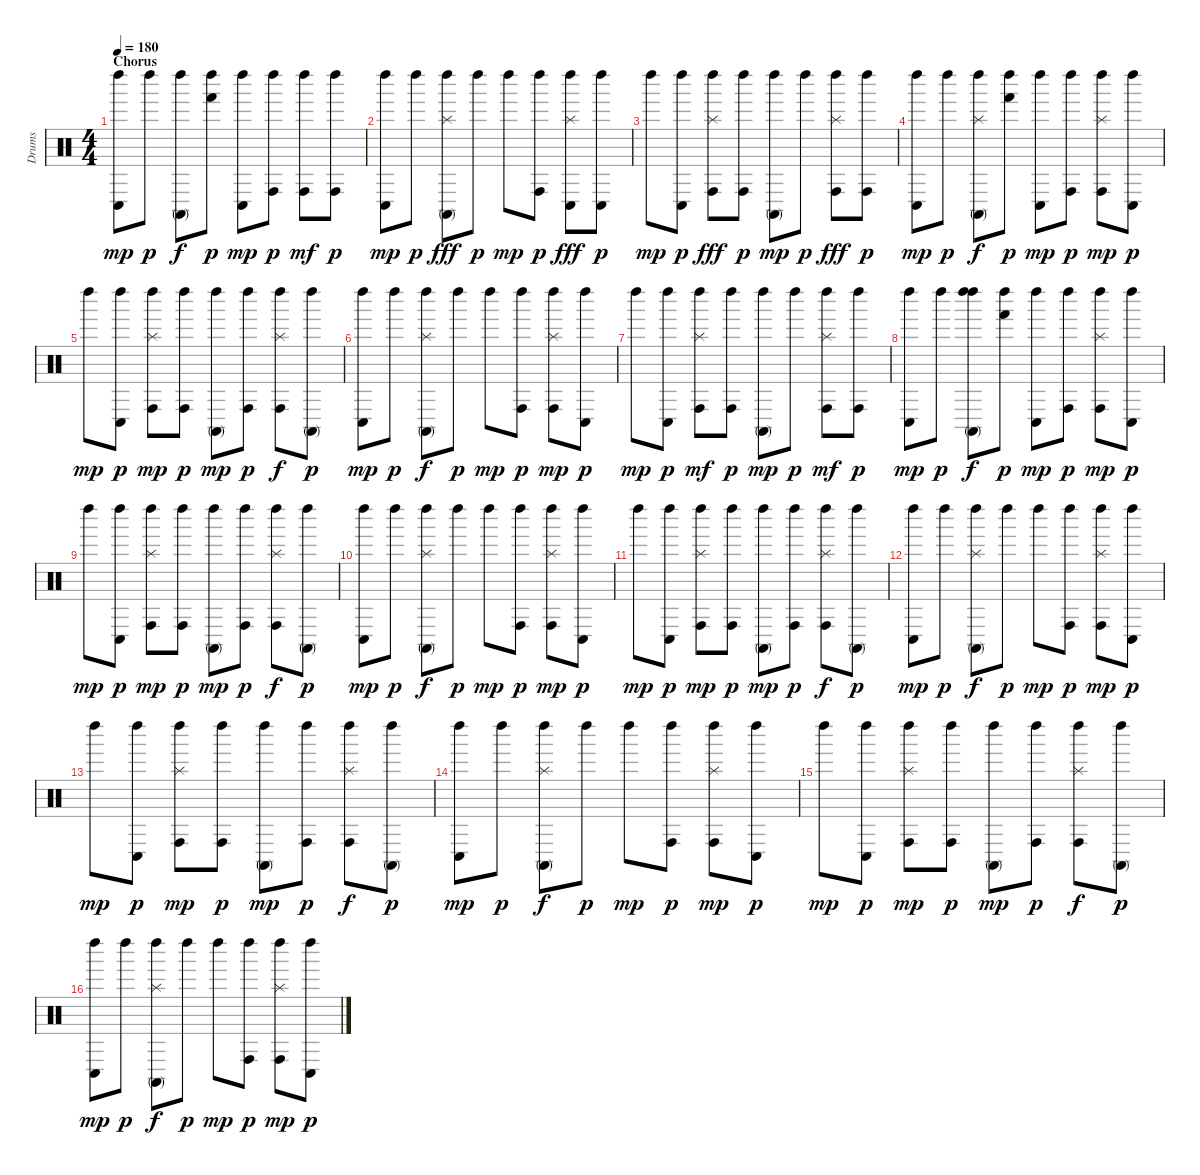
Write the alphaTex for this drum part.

\track ("Drums" "Drums") {instrument percussion}
\staff {score}
\articulation defaults
\ts (4 4)
\section ("" "Chorus")
\tempo 180
\clef neutral
\ks c
("Left Maraca (hit)" "Conga low (hit)").8{dy mp} "Left Maraca (hit)".8{dy p} ("Left Maraca (hit)" "Conga high (mute)").8{dy f} ("Left Maraca (hit)" "Hand (hit)").8{dy p} ("Left Maraca (hit)" "Conga low (hit)").8{dy mp} ("Left Maraca (hit)" "Conga high (hit)").8{dy p} ("Left Maraca (hit)" "Conga high (hit)").8{dy mf} ("Left Maraca (hit)" "Conga high (hit)").8{dy p} |
("Left Maraca (hit)" "Conga low (hit)").8{dy mp} "Left Maraca (hit)".8{dy p} ("Left Maraca (hit)" "Conga high (mute)" "Splash (hit)").8{dy fff} "Left Maraca (hit)".8{dy p} "Left Maraca (hit)".8{dy mp} ("Left Maraca (hit)" "Conga high (hit)").8{dy p} ("Left Maraca (hit)" "Conga low (hit)" "Splash (hit)").8{dy fff} ("Left Maraca (hit)" "Conga low (hit)").8{dy p} |
"Left Maraca (hit)".8{dy mp} ("Left Maraca (hit)" "Conga low (hit)").8{dy p} ("Left Maraca (hit)" "Conga high (hit)" "Splash (hit)").8{dy fff} ("Left Maraca (hit)" "Conga high (hit)").8{dy p} ("Left Maraca (hit)" "Conga high (mute)").8{dy mp} "Left Maraca (hit)".8{dy p} ("Left Maraca (hit)" "Conga high (hit)" "Splash (hit)").8{dy fff} ("Left Maraca (hit)" "Conga high (hit)").8{dy p} |
("Left Maraca (hit)" "Conga low (hit)").8{dy mp} "Left Maraca (hit)".8{dy p} ("Left Maraca (hit)" "Conga high (mute)" "Splash (hit)").8{dy f} ("Left Maraca (hit)" "Hand (hit)").8{dy p} ("Left Maraca (hit)" "Conga low (hit)").8{dy mp} ("Left Maraca (hit)" "Conga high (hit)").8{dy p} ("Left Maraca (hit)" "Conga high (hit)" "Splash (hit)").8{dy mp} ("Left Maraca (hit)" "Conga low (hit)").8{dy p} |
"Left Maraca (hit)".8{dy mp} ("Left Maraca (hit)" "Conga low (hit)").8{dy p} ("Left Maraca (hit)" "Conga high (hit)" "Splash (hit)").8{dy mp} ("Left Maraca (hit)" "Conga high (hit)").8{dy p} ("Left Maraca (hit)" "Conga high (mute)").8{dy mp} ("Left Maraca (hit)" "Conga high (hit)").8{dy p} ("Left Maraca (hit)" "Conga high (hit)" "Splash (hit)").8{dy f} ("Left Maraca (hit)" "Conga high (mute)").8{dy p} |
("Left Maraca (hit)" "Conga low (hit)").8{dy mp} "Left Maraca (hit)".8{dy p} ("Left Maraca (hit)" "Conga high (mute)" "Splash (hit)").8{dy f} "Left Maraca (hit)".8{dy p} "Left Maraca (hit)".8{dy mp} ("Left Maraca (hit)" "Conga high (hit)").8{dy p} ("Left Maraca (hit)" "Conga high (hit)" "Splash (hit)").8{dy mp} ("Left Maraca (hit)" "Conga low (hit)").8{dy p} |
"Left Maraca (hit)".8{dy mp} ("Left Maraca (hit)" "Conga low (hit)").8{dy p} ("Left Maraca (hit)" "Conga high (hit)" "Splash (hit)").8{dy mf} ("Left Maraca (hit)" "Conga high (hit)").8{dy p} ("Left Maraca (hit)" "Conga high (mute)").8{dy mp} "Left Maraca (hit)".8{dy p} ("Left Maraca (hit)" "Conga high (hit)" "Splash (hit)").8{dy mf} ("Left Maraca (hit)" "Conga high (hit)").8{dy p} |
("Left Maraca (hit)" "Conga low (hit)").8{dy mp} "Left Maraca (hit)".8{dy p} ("Left Maraca (hit)" "Conga high (mute)" "Left Maraca (hit)").8{dy f} ("Left Maraca (hit)" "Hand (hit)").8{dy p} ("Left Maraca (hit)" "Conga low (hit)").8{dy mp} ("Left Maraca (hit)" "Conga high (hit)").8{dy p} ("Left Maraca (hit)" "Conga high (hit)" "Splash (hit)").8{dy mp} ("Left Maraca (hit)" "Conga low (hit)").8{dy p} |
"Left Maraca (hit)".8{dy mp} ("Left Maraca (hit)" "Conga low (hit)").8{dy p} ("Left Maraca (hit)" "Conga high (hit)" "Splash (hit)").8{dy mp} ("Left Maraca (hit)" "Conga high (hit)").8{dy p} ("Left Maraca (hit)" "Conga high (mute)").8{dy mp} ("Left Maraca (hit)" "Conga high (hit)").8{dy p} ("Left Maraca (hit)" "Conga high (hit)" "Splash (hit)").8{dy f} ("Left Maraca (hit)" "Conga high (mute)").8{dy p} |
("Left Maraca (hit)" "Conga low (hit)").8{dy mp} "Left Maraca (hit)".8{dy p} ("Left Maraca (hit)" "Conga high (mute)" "Splash (hit)").8{dy f} "Left Maraca (hit)".8{dy p} "Left Maraca (hit)".8{dy mp} ("Left Maraca (hit)" "Conga high (hit)").8{dy p} ("Left Maraca (hit)" "Conga high (hit)" "Splash (hit)").8{dy mp} ("Left Maraca (hit)" "Conga low (hit)").8{dy p} |
"Left Maraca (hit)".8{dy mp} ("Left Maraca (hit)" "Conga low (hit)").8{dy p} ("Left Maraca (hit)" "Conga high (hit)" "Splash (hit)").8{dy mp} ("Left Maraca (hit)" "Conga high (hit)").8{dy p} ("Left Maraca (hit)" "Conga high (mute)").8{dy mp} ("Left Maraca (hit)" "Conga high (hit)").8{dy p} ("Left Maraca (hit)" "Conga high (hit)" "Splash (hit)").8{dy f} ("Left Maraca (hit)" "Conga high (mute)").8{dy p} |
("Left Maraca (hit)" "Conga low (hit)").8{dy mp} "Left Maraca (hit)".8{dy p} ("Left Maraca (hit)" "Conga high (mute)" "Splash (hit)").8{dy f} "Left Maraca (hit)".8{dy p} "Left Maraca (hit)".8{dy mp} ("Left Maraca (hit)" "Conga high (hit)").8{dy p} ("Left Maraca (hit)" "Conga high (hit)" "Splash (hit)").8{dy mp} ("Left Maraca (hit)" "Conga low (hit)").8{dy p} |
"Left Maraca (hit)".8{dy mp} ("Left Maraca (hit)" "Conga low (hit)").8{dy p} ("Left Maraca (hit)" "Conga high (hit)" "Splash (hit)").8{dy mp} ("Left Maraca (hit)" "Conga high (hit)").8{dy p} ("Left Maraca (hit)" "Conga high (mute)").8{dy mp} ("Left Maraca (hit)" "Conga high (hit)").8{dy p} ("Left Maraca (hit)" "Conga high (hit)" "Splash (hit)").8{dy f} ("Left Maraca (hit)" "Conga high (mute)").8{dy p} |
("Left Maraca (hit)" "Conga low (hit)").8{dy mp} "Left Maraca (hit)".8{dy p} ("Left Maraca (hit)" "Conga high (mute)" "Splash (hit)").8{dy f} "Left Maraca (hit)".8{dy p} "Left Maraca (hit)".8{dy mp} ("Left Maraca (hit)" "Conga high (hit)").8{dy p} ("Left Maraca (hit)" "Conga high (hit)" "Splash (hit)").8{dy mp} ("Left Maraca (hit)" "Conga low (hit)").8{dy p} |
"Left Maraca (hit)".8{dy mp} ("Left Maraca (hit)" "Conga low (hit)").8{dy p} ("Left Maraca (hit)" "Conga high (hit)" "Splash (hit)").8{dy mp} ("Left Maraca (hit)" "Conga high (hit)").8{dy p} ("Left Maraca (hit)" "Conga high (mute)").8{dy mp} ("Left Maraca (hit)" "Conga high (hit)").8{dy p} ("Left Maraca (hit)" "Conga high (hit)" "Splash (hit)").8{dy f} ("Left Maraca (hit)" "Conga high (mute)").8{dy p} |
("Left Maraca (hit)" "Conga low (hit)").8{dy mp} "Left Maraca (hit)".8{dy p} ("Left Maraca (hit)" "Conga high (mute)" "Splash (hit)").8{dy f} "Left Maraca (hit)".8{dy p} "Left Maraca (hit)".8{dy mp} ("Left Maraca (hit)" "Conga high (hit)").8{dy p} ("Left Maraca (hit)" "Conga high (hit)" "Splash (hit)").8{dy mp} ("Left Maraca (hit)" "Conga low (hit)").8{dy p}
